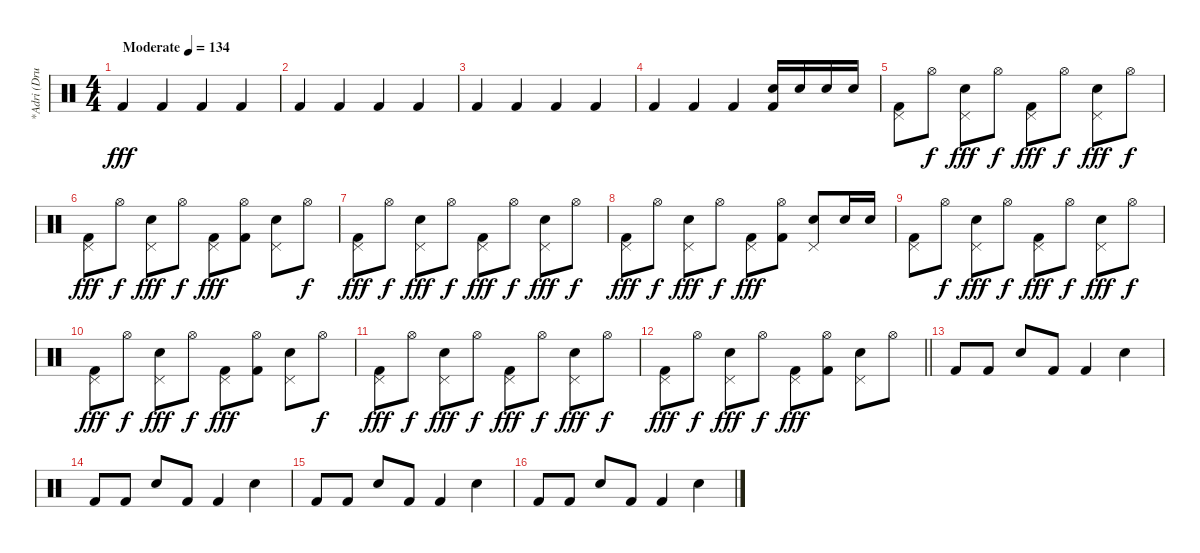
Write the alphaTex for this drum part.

\track ("*Adri (Drum)" "*Adri (Dru") {instrument percussion}
\staff {score}
\articulation defaults
\ts (4 4)
\section ("" "")
\tempo (134 "Moderate")
\clef neutral
\ks c "Kick (hit) 2".4{dy fff} "Kick (hit) 2".4 "Kick (hit) 2".4 "Kick (hit) 2".4
|
"Kick (hit) 2".4 "Kick (hit) 2".4 "Kick (hit) 2".4 "Kick (hit) 2".4 |
"Kick (hit) 2".4 "Kick (hit) 2".4 "Kick (hit) 2".4 "Kick (hit) 2".4 |
"Kick (hit) 2".4 "Kick (hit) 2".4 "Kick (hit) 2".4 ("Snare (hit) 2" "Kick (hit) 2").16 "Snare (hit) 2".16 "Snare (hit) 2".16 "Snare (hit) 2".16 |
("Pedal Hi-Hat (hit)" "Kick (hit) 2").8 "Hi-Hat (open)".8{dy f} ("Pedal Hi-Hat (hit)" "Snare (hit) 2").8{dy fff} "Hi-Hat (open)".8{dy f} ("Pedal Hi-Hat (hit)" "Kick (hit) 2").8{dy fff} "Hi-Hat (open)".8{dy f} ("Pedal Hi-Hat (hit)" "Snare (hit) 2").8{dy fff} "Hi-Hat (open)".8{dy f} |
("Pedal Hi-Hat (hit)" "Kick (hit) 2").8{dy fff} "Hi-Hat (open)".8{dy f} ("Pedal Hi-Hat (hit)" "Snare (hit) 2").8{dy fff} "Hi-Hat (open)".8{dy f} ("Pedal Hi-Hat (hit)" "Kick (hit) 2").8{dy fff} ("Hi-Hat (open)" "Kick (hit) 2").8 ("Pedal Hi-Hat (hit)" "Snare (hit) 2").8 "Hi-Hat (open)".8{dy f} |
("Pedal Hi-Hat (hit)" "Kick (hit) 2").8{dy fff} "Hi-Hat (open)".8{dy f} ("Pedal Hi-Hat (hit)" "Snare (hit) 2").8{dy fff} "Hi-Hat (open)".8{dy f} ("Pedal Hi-Hat (hit)" "Kick (hit) 2").8{dy fff} "Hi-Hat (open)".8{dy f} ("Pedal Hi-Hat (hit)" "Snare (hit) 2").8{dy fff} "Hi-Hat (open)".8{dy f} |
("Pedal Hi-Hat (hit)" "Kick (hit) 2").8{dy fff} "Hi-Hat (open)".8{dy f} ("Pedal Hi-Hat (hit)" "Snare (hit) 2").8{dy fff} "Hi-Hat (open)".8{dy f} ("Pedal Hi-Hat (hit)" "Kick (hit) 2").8{dy fff} ("Hi-Hat (open)" "Kick (hit) 2").8 ("Pedal Hi-Hat (hit)" "Snare (hit) 2").8 "Snare (hit) 2".16 "Snare (hit) 2".16 |
("Pedal Hi-Hat (hit)" "Kick (hit) 2").8 "Hi-Hat (open)".8{dy f} ("Pedal Hi-Hat (hit)" "Snare (hit) 2").8{dy fff} "Hi-Hat (open)".8{dy f} ("Pedal Hi-Hat (hit)" "Kick (hit) 2").8{dy fff} "Hi-Hat (open)".8{dy f} ("Pedal Hi-Hat (hit)" "Snare (hit) 2").8{dy fff} "Hi-Hat (open)".8{dy f} |
("Pedal Hi-Hat (hit)" "Kick (hit) 2").8{dy fff} "Hi-Hat (open)".8{dy f} ("Pedal Hi-Hat (hit)" "Snare (hit) 2").8{dy fff} "Hi-Hat (open)".8{dy f} ("Pedal Hi-Hat (hit)" "Kick (hit) 2").8{dy fff} ("Hi-Hat (open)" "Kick (hit) 2").8 ("Pedal Hi-Hat (hit)" "Snare (hit) 2").8 "Hi-Hat (open)".8{dy f} |
("Pedal Hi-Hat (hit)" "Kick (hit) 2").8{dy fff} "Hi-Hat (open)".8{dy f} ("Pedal Hi-Hat (hit)" "Snare (hit) 2").8{dy fff} "Hi-Hat (open)".8{dy f} ("Pedal Hi-Hat (hit)" "Kick (hit) 2").8{dy fff} "Hi-Hat (open)".8{dy f} ("Pedal Hi-Hat (hit)" "Snare (hit) 2").8{dy fff} "Hi-Hat (open)".8{dy f} |
\barLineRight lightlight
("Pedal Hi-Hat (hit)" "Kick (hit) 2").8{dy fff} "Hi-Hat (open)".8{dy f} ("Pedal Hi-Hat (hit)" "Snare (hit) 2").8{dy fff} "Hi-Hat (open)".8{dy f} ("Pedal Hi-Hat (hit)" "Kick (hit) 2").8{dy fff} ("Hi-Hat (open)" "Kick (hit) 2").8 ("Pedal Hi-Hat (hit)" "Snare (hit) 2").8 "Hi-Hat (open)".8 |
\section ("" "")
"Kick (hit) 2".8 "Kick (hit) 2".8 "Snare (hit) 2".8 "Kick (hit) 2".8 "Kick (hit) 2".4 "Snare (hit) 2".4 |
"Kick (hit) 2".8 "Kick (hit) 2".8 "Snare (hit) 2".8 "Kick (hit) 2".8 "Kick (hit) 2".4 "Snare (hit) 2".4 |
"Kick (hit) 2".8 "Kick (hit) 2".8 "Snare (hit) 2".8 "Kick (hit) 2".8 "Kick (hit) 2".4 "Snare (hit) 2".4 |
"Kick (hit) 2".8 "Kick (hit) 2".8 "Snare (hit) 2".8 "Kick (hit) 2".8 "Kick (hit) 2".4 "Snare (hit) 2".4
